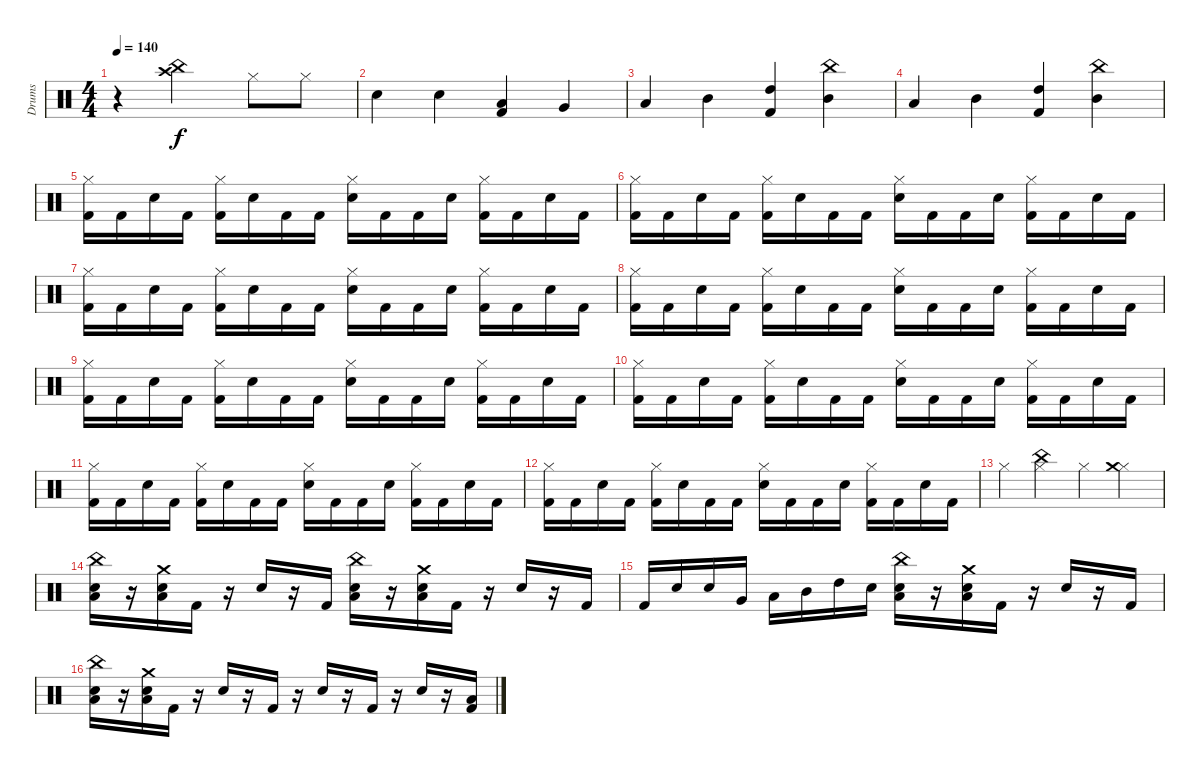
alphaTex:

\track ("Drums" "Drums") {instrument percussion}
\staff {score}
\articulation defaults
\ts (4 4)
\tempo 140
\clef neutral
\ks c
r.4{dy f} ("Crash high (hit)"{t} "China (hit)"{t}).2 "Hi-Hat (closed)".8 "Hi-Hat (closed)".8 |
"Snare (hit) 2".4 "Electric Snare (hit)".4 ("Low Floor Tom (hit)" "Kick (hit) 2").4 "Very Low Tom (hit)".4 |
"Low Tom (hit)".4 "Mid Tom (hit)".4 ("High Tom (hit)" "Kick (hit) 2").4 ("Mid Tom (hit)" "China (hit)").4 |
"Low Tom (hit)".4 "Mid Tom (hit)".4 ("High Tom (hit)" "Kick (hit) 2").4 ("Mid Tom (hit)" "China (hit)").4 |
("Kick (hit) 2" "Hi-Hat (closed)").16 "Kick (hit) 2".16 "Snare (hit) 2".16 "Kick (hit) 2".16 ("Kick (hit) 2" "Hi-Hat (closed)").16 "Snare (hit) 2".16 "Kick (hit) 2".16 "Kick (hit) 2".16 ("Snare (hit) 2" "Hi-Hat (closed)").16 "Kick (hit) 2".16 "Kick (hit) 2".16 "Snare (hit) 2".16 ("Kick (hit) 2" "Hi-Hat (closed)").16 "Kick (hit) 2".16 "Snare (hit) 2".16 "Kick (hit) 2".16 |
("Kick (hit) 2" "Hi-Hat (closed)").16 "Kick (hit) 2".16 "Snare (hit) 2".16 "Kick (hit) 2".16 ("Kick (hit) 2" "Hi-Hat (closed)").16 "Snare (hit) 2".16 "Kick (hit) 2".16 "Kick (hit) 2".16 ("Snare (hit) 2" "Hi-Hat (closed)").16 "Kick (hit) 2".16 "Kick (hit) 2".16 "Snare (hit) 2".16 ("Kick (hit) 2" "Hi-Hat (closed)").16 "Kick (hit) 2".16 "Snare (hit) 2".16 "Kick (hit) 2".16 |
("Kick (hit) 2" "Hi-Hat (closed)").16 "Kick (hit) 2".16 "Snare (hit) 2".16 "Kick (hit) 2".16 ("Kick (hit) 2" "Hi-Hat (closed)").16 "Snare (hit) 2".16 "Kick (hit) 2".16 "Kick (hit) 2".16 ("Snare (hit) 2" "Hi-Hat (closed)").16 "Kick (hit) 2".16 "Kick (hit) 2".16 "Snare (hit) 2".16 ("Kick (hit) 2" "Hi-Hat (closed)").16 "Kick (hit) 2".16 "Snare (hit) 2".16 "Kick (hit) 2".16 |
("Kick (hit) 2" "Hi-Hat (closed)").16 "Kick (hit) 2".16 "Snare (hit) 2".16 "Kick (hit) 2".16 ("Kick (hit) 2" "Hi-Hat (closed)").16 "Snare (hit) 2".16 "Kick (hit) 2".16 "Kick (hit) 2".16 ("Snare (hit) 2" "Hi-Hat (closed)").16 "Kick (hit) 2".16 "Kick (hit) 2".16 "Snare (hit) 2".16 ("Kick (hit) 2" "Hi-Hat (closed)").16 "Kick (hit) 2".16 "Snare (hit) 2".16 "Kick (hit) 2".16 |
("Kick (hit) 2" "Hi-Hat (closed)").16 "Kick (hit) 2".16 "Snare (hit) 2".16 "Kick (hit) 2".16 ("Kick (hit) 2" "Hi-Hat (closed)").16 "Snare (hit) 2".16 "Kick (hit) 2".16 "Kick (hit) 2".16 ("Snare (hit) 2" "Hi-Hat (closed)").16 "Kick (hit) 2".16 "Kick (hit) 2".16 "Snare (hit) 2".16 ("Kick (hit) 2" "Hi-Hat (closed)").16 "Kick (hit) 2".16 "Snare (hit) 2".16 "Kick (hit) 2".16 |
("Kick (hit) 2" "Hi-Hat (closed)").16 "Kick (hit) 2".16 "Snare (hit) 2".16 "Kick (hit) 2".16 ("Kick (hit) 2" "Hi-Hat (closed)").16 "Snare (hit) 2".16 "Kick (hit) 2".16 "Kick (hit) 2".16 ("Snare (hit) 2" "Hi-Hat (closed)").16 "Kick (hit) 2".16 "Kick (hit) 2".16 "Snare (hit) 2".16 ("Kick (hit) 2" "Hi-Hat (closed)").16 "Kick (hit) 2".16 "Snare (hit) 2".16 "Kick (hit) 2".16 |
("Kick (hit) 2" "Hi-Hat (closed)").16 "Kick (hit) 2".16 "Snare (hit) 2".16 "Kick (hit) 2".16 ("Kick (hit) 2" "Hi-Hat (closed)").16 "Snare (hit) 2".16 "Kick (hit) 2".16 "Kick (hit) 2".16 ("Snare (hit) 2" "Hi-Hat (closed)").16 "Kick (hit) 2".16 "Kick (hit) 2".16 "Snare (hit) 2".16 ("Kick (hit) 2" "Hi-Hat (closed)").16 "Kick (hit) 2".16 "Snare (hit) 2".16 "Kick (hit) 2".16 |
("Kick (hit) 2" "Hi-Hat (closed)").16 "Kick (hit) 2".16 "Snare (hit) 2".16 "Kick (hit) 2".16 ("Kick (hit) 2" "Hi-Hat (closed)").16 "Snare (hit) 2".16 "Kick (hit) 2".16 "Kick (hit) 2".16 ("Snare (hit) 2" "Hi-Hat (closed)").16 "Kick (hit) 2".16 "Kick (hit) 2".16 "Snare (hit) 2".16 ("Kick (hit) 2" "Hi-Hat (closed)").16 "Kick (hit) 2".16 "Snare (hit) 2".16 "Kick (hit) 2".16 |
"Hi-Hat (closed)".4 ("Hi-Hat (closed)" "China (hit)").4 "Hi-Hat (closed)".4 ("Hi-Hat (closed)" "Crash medium (hit)").4 |
("Snare (hit) 2" "Low Floor Tom (hit)" "China (hit)").16 r.16 ("Snare (hit) 2" "Low Floor Tom (hit)" "Crash medium (hit)").16 "Kick (hit) 2".16 r.16 "Snare (hit) 2".16 r.16 "Kick (hit) 2".16 ("Snare (hit) 2" "Low Floor Tom (hit)" "China (hit)").16 r.16 ("Snare (hit) 2" "Low Floor Tom (hit)" "Crash medium (hit)").16 "Kick (hit) 2".16 r.16 "Snare (hit) 2".16 r.16 "Kick (hit) 2".16 |
"Kick (hit) 2".16 "Snare (hit) 2".16 "Electric Snare (hit)".16 "Very Low Tom (hit)".16 "Low Tom (hit)".16 "Mid Tom (hit)".16 "High Tom (hit)".16 "Snare (hit) 2".16 ("Snare (hit) 2" "Low Floor Tom (hit)" "China (hit)").16 r.16 ("Snare (hit) 2" "Low Floor Tom (hit)" "Crash medium (hit)").16 "Kick (hit) 2".16 r.16 "Snare (hit) 2".16 r.16 "Kick (hit) 2".16 |
("Snare (hit) 2" "Low Floor Tom (hit)" "China (hit)").16 r.16 ("Snare (hit) 2" "Low Floor Tom (hit)" "Crash medium (hit)").16 "Kick (hit) 2".16 r.16 "Snare (hit) 2".16 r.16 "Kick (hit) 2".16 r.16 "Snare (hit) 2".16 r.16 "Kick (hit) 2".16 r.16 "Snare (hit) 2".16 r.16 ("Kick (hit) 2" "Low Floor Tom (hit)").16
